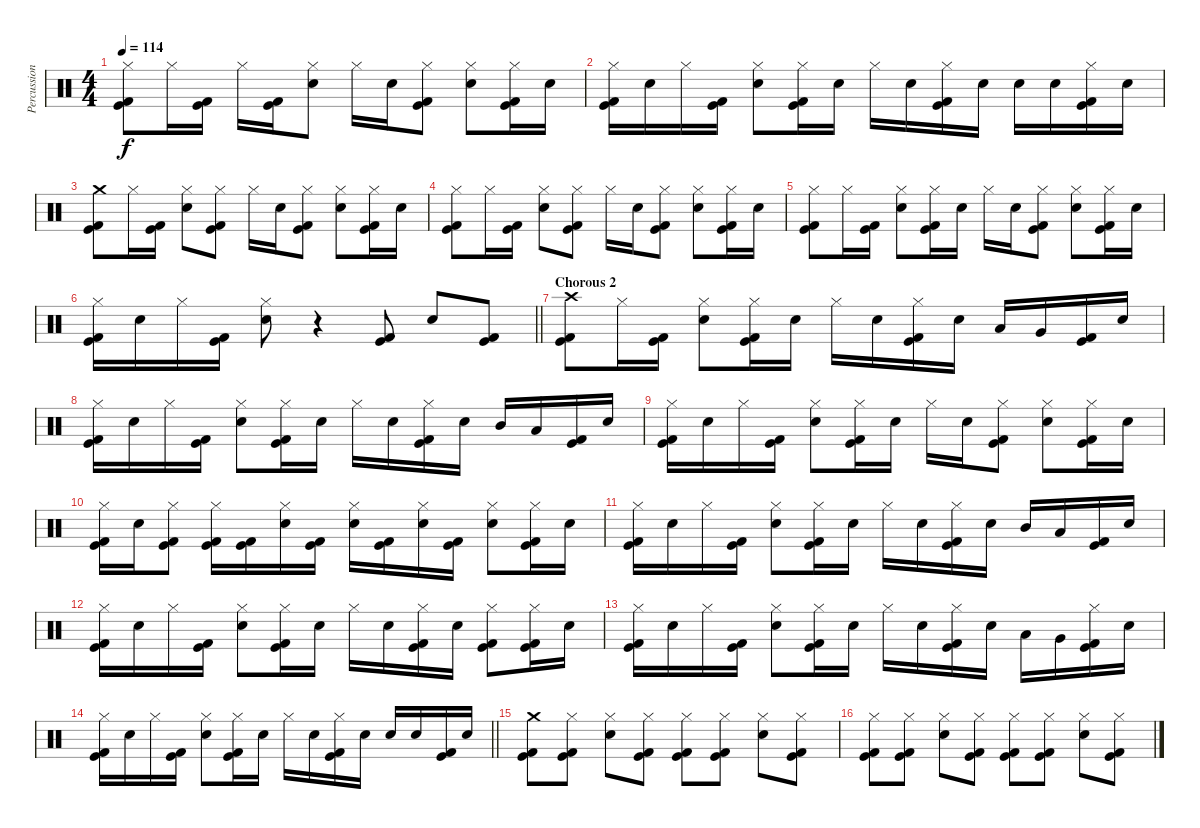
\track ("Percussion" "Percussion") {instrument percussion}
\staff {score}
\articulation defaults
\ts (4 4)
\tempo 114
\clef neutral
\ks c
("Hi-Hat (closed)" "Kick (hit)" "Kick (hit) 2").8{dy f} "Hi-Hat (closed)".16 ("Kick (hit)" "Kick (hit) 2").16 "Hi-Hat (closed)".16 ("Kick (hit)" "Kick (hit) 2").16 ("Hi-Hat (closed)" "Electric Snare (hit)").8 "Hi-Hat (closed)".16 "Electric Snare (hit)".16 ("Hi-Hat (closed)" "Kick (hit)" "Kick (hit) 2").8 ("Hi-Hat (closed)" "Electric Snare (hit)").8 ("Hi-Hat (closed)" "Kick (hit)" "Kick (hit) 2").16 "Electric Snare (hit)".16 |
("Hi-Hat (closed)" "Kick (hit)" "Kick (hit) 2").16 "Electric Snare (hit)".16 "Hi-Hat (closed)".16 ("Kick (hit)" "Kick (hit) 2").16 ("Hi-Hat (closed)" "Electric Snare (hit)").8 ("Hi-Hat (closed)" "Kick (hit)" "Kick (hit) 2").16 "Electric Snare (hit)".16 "Hi-Hat (closed)".16 "Electric Snare (hit)".16 ("Hi-Hat (closed)" "Kick (hit)" "Kick (hit) 2").16 "Electric Snare (hit)".16 "Electric Snare (hit)".16 "Electric Snare (hit)".16 ("Hi-Hat (closed)" "Kick (hit)" "Kick (hit) 2").16 "Electric Snare (hit)".16 |
("Crash medium (hit)" "Kick (hit)" "Kick (hit) 2").8 "Hi-Hat (closed)".16 ("Kick (hit)" "Kick (hit) 2").16 ("Hi-Hat (closed)" "Electric Snare (hit)").8 ("Hi-Hat (closed)" "Kick (hit)" "Kick (hit) 2").8 "Hi-Hat (closed)".16 "Electric Snare (hit)".16 ("Hi-Hat (closed)" "Kick (hit)" "Kick (hit) 2").8 ("Hi-Hat (closed)" "Electric Snare (hit)").8 ("Hi-Hat (closed)" "Kick (hit)" "Kick (hit) 2").16 "Electric Snare (hit)".16 |
("Hi-Hat (closed)" "Kick (hit)" "Kick (hit) 2").8 "Hi-Hat (closed)".16 ("Kick (hit)" "Kick (hit) 2").16 ("Hi-Hat (closed)" "Electric Snare (hit)").8 ("Hi-Hat (closed)" "Kick (hit)" "Kick (hit) 2").8 "Hi-Hat (closed)".16 "Electric Snare (hit)".16 ("Hi-Hat (closed)" "Kick (hit)" "Kick (hit) 2").8 ("Hi-Hat (closed)" "Electric Snare (hit)").8 ("Hi-Hat (closed)" "Kick (hit)" "Kick (hit) 2").16 "Electric Snare (hit)".16 |
("Hi-Hat (closed)" "Kick (hit)" "Kick (hit) 2").8 "Hi-Hat (closed)".16 ("Kick (hit)" "Kick (hit) 2").16 ("Hi-Hat (closed)" "Electric Snare (hit)").8 ("Hi-Hat (closed)" "Kick (hit)" "Kick (hit) 2").16 "Electric Snare (hit)".16 "Hi-Hat (closed)".16 "Electric Snare (hit)".16 ("Hi-Hat (closed)" "Kick (hit)" "Kick (hit) 2").8 ("Hi-Hat (closed)" "Electric Snare (hit)").8 ("Hi-Hat (closed)" "Kick (hit)" "Kick (hit) 2").16 "Electric Snare (hit)".16 |
\barLineRight lightlight
("Hi-Hat (closed)" "Kick (hit)" "Kick (hit) 2").16 "Electric Snare (hit)".16 "Hi-Hat (closed)".16 ("Kick (hit)" "Kick (hit) 2").16 ("Hi-Hat (closed)" "Electric Snare (hit)").8 r.4 ("Kick (hit)" "Kick (hit) 2").8 "Electric Snare (hit)".8 ("Kick (hit)" "Kick (hit) 2").8 |
\section ("" "Chorous 2")
("Crash high (hit)" "Kick (hit)" "Kick (hit) 2").8 "Hi-Hat (closed)".16 ("Kick (hit)" "Kick (hit) 2").16 ("Hi-Hat (closed)" "Electric Snare (hit)").8 ("Hi-Hat (closed)" "Kick (hit)" "Kick (hit) 2").16 "Electric Snare (hit)".16 "Hi-Hat (closed)".16 "Electric Snare (hit)".16 ("Hi-Hat (closed)" "Kick (hit)" "Kick (hit) 2").16 "Electric Snare (hit)".16 "Low Tom (hit)".16 "Very Low Tom (hit)".16 ("Kick (hit)" "Kick (hit) 2").16 "Electric Snare (hit)".16 |
("Hi-Hat (closed)" "Kick (hit)" "Kick (hit) 2").16 "Electric Snare (hit)".16 "Hi-Hat (closed)".16 ("Kick (hit)" "Kick (hit) 2").16 ("Hi-Hat (closed)" "Electric Snare (hit)").8 ("Hi-Hat (closed)" "Kick (hit)" "Kick (hit) 2").16 "Electric Snare (hit)".16 "Hi-Hat (closed)".16 "Electric Snare (hit)".16 ("Hi-Hat (closed)" "Kick (hit)" "Kick (hit) 2").16 "Electric Snare (hit)".16 "Mid Tom (hit)".16 "Low Tom (hit)".16 ("Kick (hit)" "Kick (hit) 2").16 "Electric Snare (hit)".16 |
("Hi-Hat (closed)" "Kick (hit)" "Kick (hit) 2").16 "Electric Snare (hit)".16 "Hi-Hat (closed)".16 ("Kick (hit)" "Kick (hit) 2").16 ("Hi-Hat (closed)" "Electric Snare (hit)").8 ("Hi-Hat (closed)" "Kick (hit)" "Kick (hit) 2").16 "Electric Snare (hit)".16 "Hi-Hat (closed)".16 "Electric Snare (hit)".16 ("Hi-Hat (closed)" "Kick (hit)" "Kick (hit) 2").8 ("Hi-Hat (closed)" "Electric Snare (hit)").8 ("Hi-Hat (closed)" "Kick (hit)" "Kick (hit) 2").16 "Electric Snare (hit)".16 |
("Hi-Hat (closed)" "Kick (hit)" "Kick (hit) 2").16 "Electric Snare (hit)".16 ("Hi-Hat (closed)" "Kick (hit)" "Kick (hit) 2").8 ("Hi-Hat (closed)" "Kick (hit)" "Kick (hit) 2").16 ("Kick (hit)" "Kick (hit) 2").16 ("Hi-Hat (closed)" "Electric Snare (hit)").16 ("Kick (hit)" "Kick (hit) 2").16 ("Hi-Hat (closed)" "Electric Snare (hit)").16 ("Kick (hit)" "Kick (hit) 2").16 ("Hi-Hat (closed)" "Electric Snare (hit)").16 ("Kick (hit)" "Kick (hit) 2").16 ("Hi-Hat (closed)" "Electric Snare (hit)").8 ("Hi-Hat (closed)" "Kick (hit)" "Kick (hit) 2").16 "Electric Snare (hit)".16 |
("Hi-Hat (closed)" "Kick (hit)" "Kick (hit) 2").16 "Electric Snare (hit)".16 "Hi-Hat (closed)".16 ("Kick (hit)" "Kick (hit) 2").16 ("Hi-Hat (closed)" "Electric Snare (hit)").8 ("Hi-Hat (closed)" "Kick (hit)" "Kick (hit) 2").16 "Electric Snare (hit)".16 "Hi-Hat (closed)".16 "Electric Snare (hit)".16 ("Hi-Hat (closed)" "Kick (hit)" "Kick (hit) 2").16 "Electric Snare (hit)".16 "Mid Tom (hit)".16 "Low Tom (hit)".16 ("Kick (hit)" "Kick (hit) 2").16 "Electric Snare (hit)".16 |
("Hi-Hat (closed)" "Kick (hit)" "Kick (hit) 2").16 "Electric Snare (hit)".16 "Hi-Hat (closed)".16 ("Kick (hit)" "Kick (hit) 2").16 ("Hi-Hat (closed)" "Electric Snare (hit)").8 ("Hi-Hat (closed)" "Kick (hit)" "Kick (hit) 2").16 "Electric Snare (hit)".16 "Hi-Hat (closed)".16 "Electric Snare (hit)".16 ("Hi-Hat (closed)" "Kick (hit)" "Kick (hit) 2").16 "Electric Snare (hit)".16 ("Hi-Hat (closed)" "Kick (hit)" "Kick (hit) 2").8 ("Hi-Hat (closed)" "Kick (hit)" "Kick (hit) 2").16 "Electric Snare (hit)".16 |
("Hi-Hat (closed)" "Kick (hit)" "Kick (hit) 2").16 "Electric Snare (hit)".16 "Hi-Hat (closed)".16 ("Kick (hit)" "Kick (hit) 2").16 ("Hi-Hat (closed)" "Electric Snare (hit)").8 ("Hi-Hat (closed)" "Kick (hit)" "Kick (hit) 2").16 "Electric Snare (hit)".16 "Hi-Hat (closed)".16 "Electric Snare (hit)".16 ("Hi-Hat (closed)" "Kick (hit)" "Kick (hit) 2").16 "Electric Snare (hit)".16 "Low Tom (hit)".16 "Very Low Tom (hit)".16 ("Hi-Hat (closed)" "Kick (hit)" "Kick (hit) 2").16 "Electric Snare (hit)".16 |
\barLineRight lightlight
("Hi-Hat (closed)" "Kick (hit)" "Kick (hit) 2").16 "Electric Snare (hit)".16 "Hi-Hat (closed)".16 ("Kick (hit)" "Kick (hit) 2").16 ("Hi-Hat (closed)" "Electric Snare (hit)").8 ("Hi-Hat (closed)" "Kick (hit)" "Kick (hit) 2").16 "Electric Snare (hit)".16 "Hi-Hat (closed)".16 "Electric Snare (hit)".16 ("Hi-Hat (closed)" "Kick (hit)" "Kick (hit) 2").16 "Electric Snare (hit)".16 "Electric Snare (hit)".16 "Electric Snare (hit)".16 ("Kick (hit)" "Kick (hit) 2").16 "Electric Snare (hit)".16 |
\section ("" "")
("Crash medium (hit)" "Kick (hit)" "Kick (hit) 2").8 ("Hi-Hat (closed)" "Kick (hit)" "Kick (hit) 2").8 ("Hi-Hat (closed)" "Electric Snare (hit)").8 ("Hi-Hat (closed)" "Kick (hit)" "Kick (hit) 2").8 ("Hi-Hat (closed)" "Kick (hit)" "Kick (hit) 2").8 ("Hi-Hat (closed)" "Kick (hit)" "Kick (hit) 2").8 ("Hi-Hat (closed)" "Electric Snare (hit)").8 ("Hi-Hat (closed)" "Kick (hit)" "Kick (hit) 2").8 |
("Hi-Hat (closed)" "Kick (hit)" "Kick (hit) 2").8 ("Hi-Hat (closed)" "Kick (hit)" "Kick (hit) 2").8 ("Hi-Hat (closed)" "Electric Snare (hit)").8 ("Hi-Hat (closed)" "Kick (hit)" "Kick (hit) 2").8 ("Hi-Hat (closed)" "Kick (hit)" "Kick (hit) 2").8 ("Hi-Hat (closed)" "Kick (hit)" "Kick (hit) 2").8 ("Hi-Hat (closed)" "Electric Snare (hit)").8 ("Hi-Hat (closed)" "Kick (hit)" "Kick (hit) 2").8
